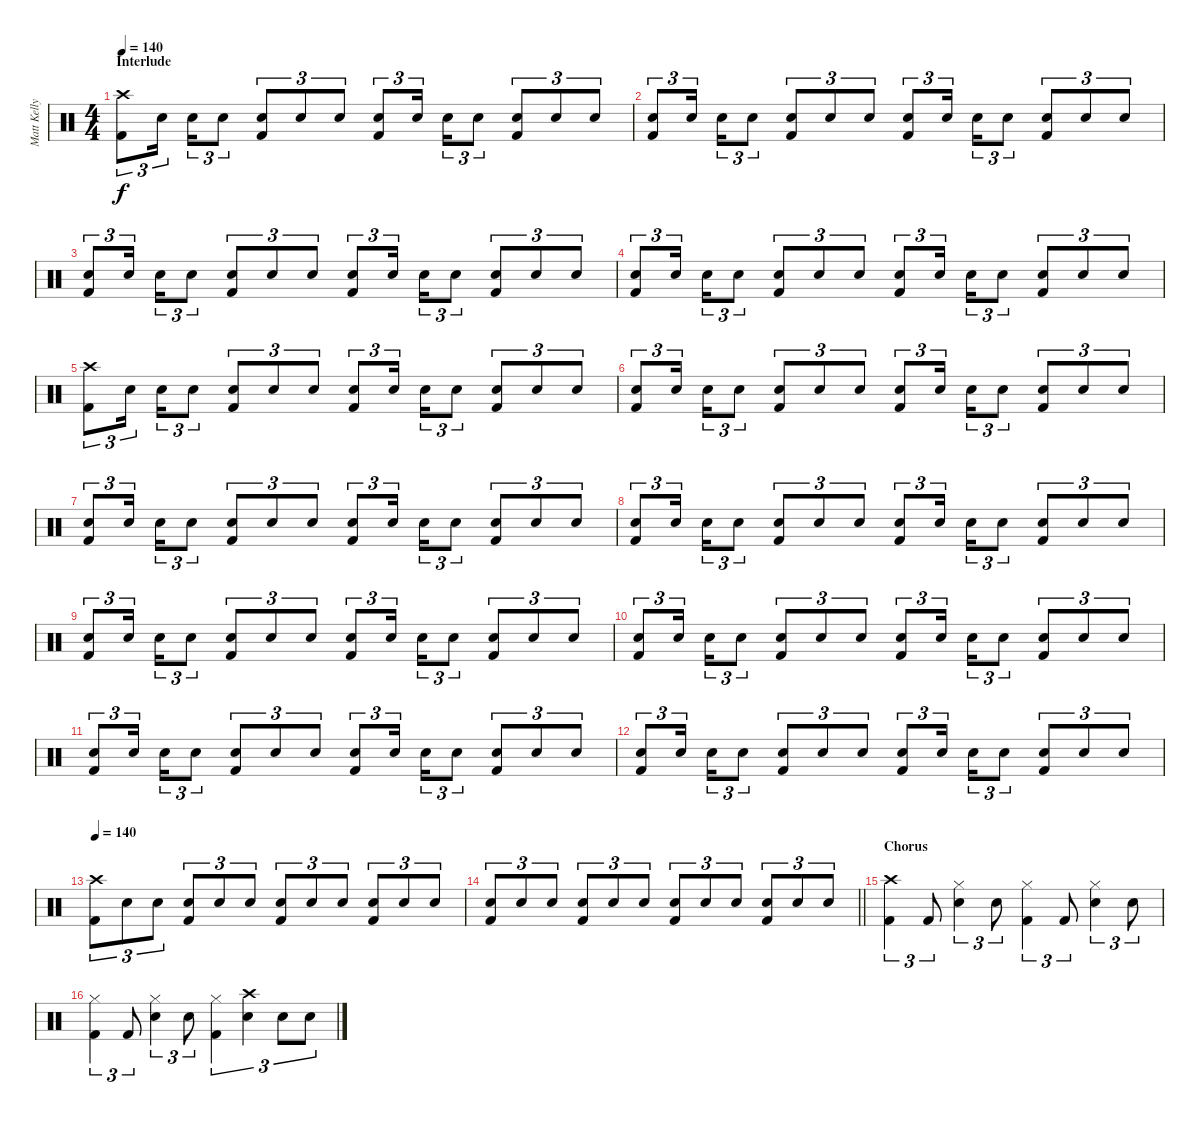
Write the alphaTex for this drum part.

\track ("Matt Kelly (Drums)" "Matt Kelly") {instrument percussion}
\staff {score}
\articulation defaults
\ts (4 4)
\section ("" "Interlude")
\tempo 140
\clef neutral
\ks c
("Crash high (hit)" "Kick (hit) 2").8{tu (3 2) dy f} "Electric Snare (hit)".16{tu (3 2) beam splitsecondary} "Electric Snare (hit)".16{tu (3 2)} "Electric Snare (hit)".8{tu (3 2)} ("Electric Snare (hit)" "Kick (hit) 2").8{tu (3 2)} "Electric Snare (hit)".8{tu (3 2)} "Electric Snare (hit)".8{tu (3 2)} ("Electric Snare (hit)" "Kick (hit) 2").8{tu (3 2)} "Electric Snare (hit)".16{tu (3 2) beam splitsecondary} "Electric Snare (hit)".16{tu (3 2)} "Electric Snare (hit)".8{tu (3 2)} ("Electric Snare (hit)" "Kick (hit) 2").8{tu (3 2)} "Electric Snare (hit)".8{tu (3 2)} "Electric Snare (hit)".8{tu (3 2)} |
("Electric Snare (hit)" "Kick (hit) 2").8{tu (3 2)} "Electric Snare (hit)".16{tu (3 2) beam splitsecondary} "Electric Snare (hit)".16{tu (3 2)} "Electric Snare (hit)".8{tu (3 2)} ("Electric Snare (hit)" "Kick (hit) 2").8{tu (3 2)} "Electric Snare (hit)".8{tu (3 2)} "Electric Snare (hit)".8{tu (3 2)} ("Electric Snare (hit)" "Kick (hit) 2").8{tu (3 2)} "Electric Snare (hit)".16{tu (3 2) beam splitsecondary} "Electric Snare (hit)".16{tu (3 2)} "Electric Snare (hit)".8{tu (3 2)} ("Electric Snare (hit)" "Kick (hit) 2").8{tu (3 2)} "Electric Snare (hit)".8{tu (3 2)} "Electric Snare (hit)".8{tu (3 2)} |
("Electric Snare (hit)" "Kick (hit) 2").8{tu (3 2)} "Electric Snare (hit)".16{tu (3 2) beam splitsecondary} "Electric Snare (hit)".16{tu (3 2)} "Electric Snare (hit)".8{tu (3 2)} ("Electric Snare (hit)" "Kick (hit) 2").8{tu (3 2)} "Electric Snare (hit)".8{tu (3 2)} "Electric Snare (hit)".8{tu (3 2)} ("Electric Snare (hit)" "Kick (hit) 2").8{tu (3 2)} "Electric Snare (hit)".16{tu (3 2) beam splitsecondary} "Electric Snare (hit)".16{tu (3 2)} "Electric Snare (hit)".8{tu (3 2)} ("Electric Snare (hit)" "Kick (hit) 2").8{tu (3 2)} "Electric Snare (hit)".8{tu (3 2)} "Electric Snare (hit)".8{tu (3 2)} |
("Electric Snare (hit)" "Kick (hit) 2").8{tu (3 2)} "Electric Snare (hit)".16{tu (3 2) beam splitsecondary} "Electric Snare (hit)".16{tu (3 2)} "Electric Snare (hit)".8{tu (3 2)} ("Electric Snare (hit)" "Kick (hit) 2").8{tu (3 2)} "Electric Snare (hit)".8{tu (3 2)} "Electric Snare (hit)".8{tu (3 2)} ("Electric Snare (hit)" "Kick (hit) 2").8{tu (3 2)} "Electric Snare (hit)".16{tu (3 2) beam splitsecondary} "Electric Snare (hit)".16{tu (3 2)} "Electric Snare (hit)".8{tu (3 2)} ("Electric Snare (hit)" "Kick (hit) 2").8{tu (3 2)} "Electric Snare (hit)".8{tu (3 2)} "Electric Snare (hit)".8{tu (3 2)} |
("Crash high (hit)" "Kick (hit) 2").8{tu (3 2)} "Electric Snare (hit)".16{tu (3 2) beam splitsecondary} "Electric Snare (hit)".16{tu (3 2)} "Electric Snare (hit)".8{tu (3 2)} ("Electric Snare (hit)" "Kick (hit) 2").8{tu (3 2)} "Electric Snare (hit)".8{tu (3 2)} "Electric Snare (hit)".8{tu (3 2)} ("Electric Snare (hit)" "Kick (hit) 2").8{tu (3 2)} "Electric Snare (hit)".16{tu (3 2) beam splitsecondary} "Electric Snare (hit)".16{tu (3 2)} "Electric Snare (hit)".8{tu (3 2)} ("Electric Snare (hit)" "Kick (hit) 2").8{tu (3 2)} "Electric Snare (hit)".8{tu (3 2)} "Electric Snare (hit)".8{tu (3 2)} |
("Electric Snare (hit)" "Kick (hit) 2").8{tu (3 2)} "Electric Snare (hit)".16{tu (3 2) beam splitsecondary} "Electric Snare (hit)".16{tu (3 2)} "Electric Snare (hit)".8{tu (3 2)} ("Electric Snare (hit)" "Kick (hit) 2").8{tu (3 2)} "Electric Snare (hit)".8{tu (3 2)} "Electric Snare (hit)".8{tu (3 2)} ("Electric Snare (hit)" "Kick (hit) 2").8{tu (3 2)} "Electric Snare (hit)".16{tu (3 2) beam splitsecondary} "Electric Snare (hit)".16{tu (3 2)} "Electric Snare (hit)".8{tu (3 2)} ("Electric Snare (hit)" "Kick (hit) 2").8{tu (3 2)} "Electric Snare (hit)".8{tu (3 2)} "Electric Snare (hit)".8{tu (3 2)} |
("Electric Snare (hit)" "Kick (hit) 2").8{tu (3 2)} "Electric Snare (hit)".16{tu (3 2) beam splitsecondary} "Electric Snare (hit)".16{tu (3 2)} "Electric Snare (hit)".8{tu (3 2)} ("Electric Snare (hit)" "Kick (hit) 2").8{tu (3 2)} "Electric Snare (hit)".8{tu (3 2)} "Electric Snare (hit)".8{tu (3 2)} ("Electric Snare (hit)" "Kick (hit) 2").8{tu (3 2)} "Electric Snare (hit)".16{tu (3 2) beam splitsecondary} "Electric Snare (hit)".16{tu (3 2)} "Electric Snare (hit)".8{tu (3 2)} ("Electric Snare (hit)" "Kick (hit) 2").8{tu (3 2)} "Electric Snare (hit)".8{tu (3 2)} "Electric Snare (hit)".8{tu (3 2)} |
("Electric Snare (hit)" "Kick (hit) 2").8{tu (3 2)} "Electric Snare (hit)".16{tu (3 2) beam splitsecondary} "Electric Snare (hit)".16{tu (3 2)} "Electric Snare (hit)".8{tu (3 2)} ("Electric Snare (hit)" "Kick (hit) 2").8{tu (3 2)} "Electric Snare (hit)".8{tu (3 2)} "Electric Snare (hit)".8{tu (3 2)} ("Electric Snare (hit)" "Kick (hit) 2").8{tu (3 2)} "Electric Snare (hit)".16{tu (3 2) beam splitsecondary} "Electric Snare (hit)".16{tu (3 2)} "Electric Snare (hit)".8{tu (3 2)} ("Electric Snare (hit)" "Kick (hit) 2").8{tu (3 2)} "Electric Snare (hit)".8{tu (3 2)} "Electric Snare (hit)".8{tu (3 2)} |
("Electric Snare (hit)" "Kick (hit) 2").8{tu (3 2)} "Electric Snare (hit)".16{tu (3 2) beam splitsecondary} "Electric Snare (hit)".16{tu (3 2)} "Electric Snare (hit)".8{tu (3 2)} ("Electric Snare (hit)" "Kick (hit) 2").8{tu (3 2)} "Electric Snare (hit)".8{tu (3 2)} "Electric Snare (hit)".8{tu (3 2)} ("Electric Snare (hit)" "Kick (hit) 2").8{tu (3 2)} "Electric Snare (hit)".16{tu (3 2) beam splitsecondary} "Electric Snare (hit)".16{tu (3 2)} "Electric Snare (hit)".8{tu (3 2)} ("Electric Snare (hit)" "Kick (hit) 2").8{tu (3 2)} "Electric Snare (hit)".8{tu (3 2)} "Electric Snare (hit)".8{tu (3 2)} |
("Electric Snare (hit)" "Kick (hit) 2").8{tu (3 2)} "Electric Snare (hit)".16{tu (3 2) beam splitsecondary} "Electric Snare (hit)".16{tu (3 2)} "Electric Snare (hit)".8{tu (3 2)} ("Electric Snare (hit)" "Kick (hit) 2").8{tu (3 2)} "Electric Snare (hit)".8{tu (3 2)} "Electric Snare (hit)".8{tu (3 2)} ("Electric Snare (hit)" "Kick (hit) 2").8{tu (3 2)} "Electric Snare (hit)".16{tu (3 2) beam splitsecondary} "Electric Snare (hit)".16{tu (3 2)} "Electric Snare (hit)".8{tu (3 2)} ("Electric Snare (hit)" "Kick (hit) 2").8{tu (3 2)} "Electric Snare (hit)".8{tu (3 2)} "Electric Snare (hit)".8{tu (3 2)} |
("Electric Snare (hit)" "Kick (hit) 2").8{tu (3 2)} "Electric Snare (hit)".16{tu (3 2) beam splitsecondary} "Electric Snare (hit)".16{tu (3 2)} "Electric Snare (hit)".8{tu (3 2)} ("Electric Snare (hit)" "Kick (hit) 2").8{tu (3 2)} "Electric Snare (hit)".8{tu (3 2)} "Electric Snare (hit)".8{tu (3 2)} ("Electric Snare (hit)" "Kick (hit) 2").8{tu (3 2)} "Electric Snare (hit)".16{tu (3 2) beam splitsecondary} "Electric Snare (hit)".16{tu (3 2)} "Electric Snare (hit)".8{tu (3 2)} ("Electric Snare (hit)" "Kick (hit) 2").8{tu (3 2)} "Electric Snare (hit)".8{tu (3 2)} "Electric Snare (hit)".8{tu (3 2)} |
("Electric Snare (hit)" "Kick (hit) 2").8{tu (3 2)} "Electric Snare (hit)".16{tu (3 2) beam splitsecondary} "Electric Snare (hit)".16{tu (3 2)} "Electric Snare (hit)".8{tu (3 2)} ("Electric Snare (hit)" "Kick (hit) 2").8{tu (3 2)} "Electric Snare (hit)".8{tu (3 2)} "Electric Snare (hit)".8{tu (3 2)} ("Electric Snare (hit)" "Kick (hit) 2").8{tu (3 2)} "Electric Snare (hit)".16{tu (3 2) beam splitsecondary} "Electric Snare (hit)".16{tu (3 2)} "Electric Snare (hit)".8{tu (3 2)} ("Electric Snare (hit)" "Kick (hit) 2").8{tu (3 2)} "Electric Snare (hit)".8{tu (3 2)} "Electric Snare (hit)".8{tu (3 2)} |
\tempo 140
("Crash high (hit)" "Kick (hit) 2").8{tu (3 2)} "Electric Snare (hit)".8{tu (3 2)} "Electric Snare (hit)".8{tu (3 2)} ("Electric Snare (hit)" "Kick (hit) 2").8{tu (3 2)} "Electric Snare (hit)".8{tu (3 2)} "Electric Snare (hit)".8{tu (3 2)} ("Electric Snare (hit)" "Kick (hit) 2").8{tu (3 2)} "Electric Snare (hit)".8{tu (3 2)} "Electric Snare (hit)".8{tu (3 2)} ("Electric Snare (hit)" "Kick (hit) 2").8{tu (3 2)} "Electric Snare (hit)".8{tu (3 2)} "Electric Snare (hit)".8{tu (3 2)} |
\barLineRight lightlight
("Electric Snare (hit)" "Kick (hit) 2").8{tu (3 2)} "Electric Snare (hit)".8{tu (3 2)} "Electric Snare (hit)".8{tu (3 2)} ("Electric Snare (hit)" "Kick (hit) 2").8{tu (3 2)} "Electric Snare (hit)".8{tu (3 2)} "Electric Snare (hit)".8{tu (3 2)} ("Electric Snare (hit)" "Kick (hit) 2").8{tu (3 2)} "Electric Snare (hit)".8{tu (3 2)} "Electric Snare (hit)".8{tu (3 2)} ("Electric Snare (hit)" "Kick (hit) 2").8{tu (3 2)} "Electric Snare (hit)".8{tu (3 2)} "Electric Snare (hit)".8{tu (3 2)} |
\section ("" "Chorus")
("Crash high (hit)" "Kick (hit) 2").4{tu (3 2)} "Kick (hit) 2".8{tu (3 2)} ("Hi-Hat (closed)" "Electric Snare (hit)").4{tu (3 2)} "Electric Snare (hit)".8{tu (3 2)} ("Hi-Hat (closed)" "Kick (hit) 2").4{tu (3 2)} "Kick (hit) 2".8{tu (3 2)} ("Hi-Hat (closed)" "Electric Snare (hit)").4{tu (3 2)} "Electric Snare (hit)".8{tu (3 2)} |
("Hi-Hat (closed)" "Kick (hit) 2").4{tu (3 2)} "Kick (hit) 2".8{tu (3 2)} ("Hi-Hat (closed)" "Electric Snare (hit)").4{tu (3 2)} "Electric Snare (hit)".8{tu (3 2)} ("Hi-Hat (closed)" "Kick (hit) 2").4{tu (3 2)} ("Crash high (hit)" "Electric Snare (hit)").4{tu (3 2)} "Electric Snare (hit)".8{tu (3 2)} "Electric Snare (hit)".8{tu (3 2)}
